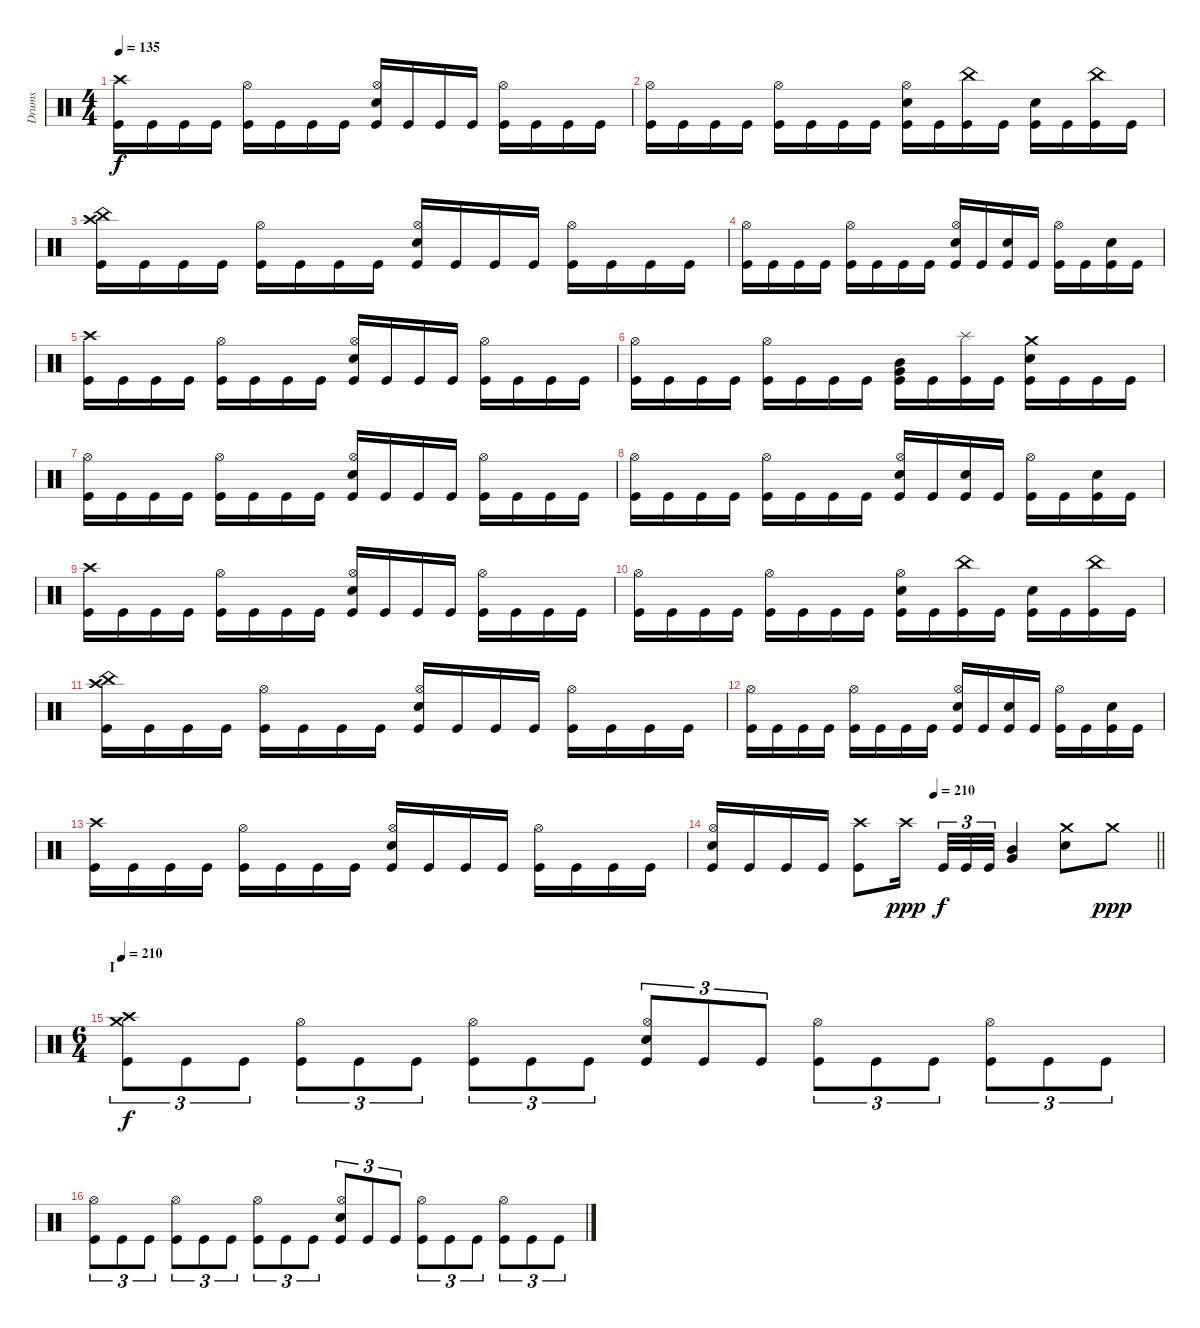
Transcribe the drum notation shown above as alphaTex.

\track ("Drums" "Drums") {instrument percussion}
\staff {score}
\articulation defaults
\ts (4 4)
\tempo 135
\clef neutral
\ks c
("Kick (hit)" "Crash high (hit)").16{dy f} "Kick (hit)".16 "Kick (hit)".16 "Kick (hit)".16 ("Kick (hit)" "Hi-Hat (open)").16 "Kick (hit)".16 "Kick (hit)".16 "Kick (hit)".16 ("Kick (hit)" "Electric Snare (hit)" "Hi-Hat (open)").16 "Kick (hit)".16 "Kick (hit)".16 "Kick (hit)".16 ("Kick (hit)" "Hi-Hat (open)").16 "Kick (hit)".16 "Kick (hit)".16 "Kick (hit)".16 |
("Kick (hit)" "Hi-Hat (open)").16 "Kick (hit)".16 "Kick (hit)".16 "Kick (hit)".16 ("Kick (hit)" "Hi-Hat (open)").16 "Kick (hit)".16 "Kick (hit)".16 "Kick (hit)".16 ("Kick (hit)" "Electric Snare (hit)" "Hi-Hat (open)").16 "Kick (hit)".16 ("Kick (hit)" "China (hit)").16 "Kick (hit)".16 ("Kick (hit)" "Electric Snare (hit)").16 "Kick (hit)".16 ("Kick (hit)" "China (hit)").16 "Kick (hit)".16 |
("Kick (hit)" "China (hit)" "Crash high (hit)").16 "Kick (hit)".16 "Kick (hit)".16 "Kick (hit)".16 ("Kick (hit)" "Hi-Hat (open)").16 "Kick (hit)".16 "Kick (hit)".16 "Kick (hit)".16 ("Kick (hit)" "Electric Snare (hit)" "Hi-Hat (open)").16 "Kick (hit)".16 "Kick (hit)".16 "Kick (hit)".16 ("Kick (hit)" "Hi-Hat (open)").16 "Kick (hit)".16 "Kick (hit)".16 "Kick (hit)".16 |
("Kick (hit)" "Hi-Hat (open)").16 "Kick (hit)".16 "Kick (hit)".16 "Kick (hit)".16 ("Kick (hit)" "Hi-Hat (open)").16 "Kick (hit)".16 "Kick (hit)".16 "Kick (hit)".16 ("Kick (hit)" "Electric Snare (hit)" "Hi-Hat (open)").16 "Kick (hit)".16 ("Kick (hit)" "Electric Snare (hit)").16 "Kick (hit)".16 ("Kick (hit)" "Hi-Hat (open)").16 "Kick (hit)".16 ("Kick (hit)" "Electric Snare (hit)").16 "Kick (hit)".16 |
("Kick (hit)" "Crash high (hit)").16 "Kick (hit)".16 "Kick (hit)".16 "Kick (hit)".16 ("Kick (hit)" "Hi-Hat (open)").16 "Kick (hit)".16 "Kick (hit)".16 "Kick (hit)".16 ("Kick (hit)" "Electric Snare (hit)" "Hi-Hat (open)").16 "Kick (hit)".16 "Kick (hit)".16 "Kick (hit)".16 ("Kick (hit)" "Hi-Hat (open)").16 "Kick (hit)".16 "Kick (hit)".16 "Kick (hit)".16 |
("Kick (hit)" "Hi-Hat (open)").16 "Kick (hit)".16 "Kick (hit)".16 "Kick (hit)".16 ("Kick (hit)" "Hi-Hat (open)").16 "Kick (hit)".16 "Kick (hit)".16 "Kick (hit)".16 ("Kick (hit)" "Very Low Tom (hit)" "Mid Tom (hit)").16 "Kick (hit)".16 ("Kick (hit)" "Splash (hit)").16 "Kick (hit)".16 ("Kick (hit)" "Electric Snare (hit)" "Crash medium (hit)").16 "Kick (hit)".16 "Kick (hit)".16 "Kick (hit)".16 |
("Kick (hit)" "Hi-Hat (open)").16 "Kick (hit)".16 "Kick (hit)".16 "Kick (hit)".16 ("Kick (hit)" "Hi-Hat (open)").16 "Kick (hit)".16 "Kick (hit)".16 "Kick (hit)".16 ("Kick (hit)" "Electric Snare (hit)" "Hi-Hat (open)").16 "Kick (hit)".16 "Kick (hit)".16 "Kick (hit)".16 ("Kick (hit)" "Hi-Hat (open)").16 "Kick (hit)".16 "Kick (hit)".16 "Kick (hit)".16 |
("Kick (hit)" "Hi-Hat (open)").16 "Kick (hit)".16 "Kick (hit)".16 "Kick (hit)".16 ("Kick (hit)" "Hi-Hat (open)").16 "Kick (hit)".16 "Kick (hit)".16 "Kick (hit)".16 ("Kick (hit)" "Electric Snare (hit)" "Hi-Hat (open)").16 "Kick (hit)".16 ("Kick (hit)" "Electric Snare (hit)").16 "Kick (hit)".16 ("Kick (hit)" "Hi-Hat (open)").16 "Kick (hit)".16 ("Kick (hit)" "Electric Snare (hit)").16 "Kick (hit)".16 |
("Kick (hit)" "Crash high (hit)").16 "Kick (hit)".16 "Kick (hit)".16 "Kick (hit)".16 ("Kick (hit)" "Hi-Hat (open)").16 "Kick (hit)".16 "Kick (hit)".16 "Kick (hit)".16 ("Kick (hit)" "Electric Snare (hit)" "Hi-Hat (open)").16 "Kick (hit)".16 "Kick (hit)".16 "Kick (hit)".16 ("Kick (hit)" "Hi-Hat (open)").16 "Kick (hit)".16 "Kick (hit)".16 "Kick (hit)".16 |
("Kick (hit)" "Hi-Hat (open)").16 "Kick (hit)".16 "Kick (hit)".16 "Kick (hit)".16 ("Kick (hit)" "Hi-Hat (open)").16 "Kick (hit)".16 "Kick (hit)".16 "Kick (hit)".16 ("Kick (hit)" "Electric Snare (hit)" "Hi-Hat (open)").16 "Kick (hit)".16 ("Kick (hit)" "China (hit)").16 "Kick (hit)".16 ("Kick (hit)" "Electric Snare (hit)").16 "Kick (hit)".16 ("Kick (hit)" "China (hit)").16 "Kick (hit)".16 |
("Kick (hit)" "China (hit)" "Crash high (hit)").16 "Kick (hit)".16 "Kick (hit)".16 "Kick (hit)".16 ("Kick (hit)" "Hi-Hat (open)").16 "Kick (hit)".16 "Kick (hit)".16 "Kick (hit)".16 ("Kick (hit)" "Electric Snare (hit)" "Hi-Hat (open)").16 "Kick (hit)".16 "Kick (hit)".16 "Kick (hit)".16 ("Kick (hit)" "Hi-Hat (open)").16 "Kick (hit)".16 "Kick (hit)".16 "Kick (hit)".16 |
("Kick (hit)" "Hi-Hat (open)").16 "Kick (hit)".16 "Kick (hit)".16 "Kick (hit)".16 ("Kick (hit)" "Hi-Hat (open)").16 "Kick (hit)".16 "Kick (hit)".16 "Kick (hit)".16 ("Kick (hit)" "Electric Snare (hit)" "Hi-Hat (open)").16 "Kick (hit)".16 ("Kick (hit)" "Electric Snare (hit)").16 "Kick (hit)".16 ("Kick (hit)" "Hi-Hat (open)").16 "Kick (hit)".16 ("Kick (hit)" "Electric Snare (hit)").16 "Kick (hit)".16 |
("Kick (hit)" "Crash high (hit)").16 "Kick (hit)".16 "Kick (hit)".16 "Kick (hit)".16 ("Kick (hit)" "Hi-Hat (open)").16 "Kick (hit)".16 "Kick (hit)".16 "Kick (hit)".16 ("Kick (hit)" "Electric Snare (hit)" "Hi-Hat (open)").16 "Kick (hit)".16 "Kick (hit)".16 "Kick (hit)".16 ("Kick (hit)" "Hi-Hat (open)").16 "Kick (hit)".16 "Kick (hit)".16 "Kick (hit)".16 |
\tempo (210 0.5)
\barLineRight lightlight
("Kick (hit)" "Electric Snare (hit)" "Hi-Hat (open)").16 "Kick (hit)".16 "Kick (hit)".16 "Kick (hit)".16 ("Kick (hit)" "Crash high (hit)").8 "Crash high (hit)".16{dy ppp beam splitsecondary} "Kick (hit)".32{tu (3 2) dy f} "Kick (hit)".32{tu (3 2)} "Kick (hit)".32{tu (3 2)} ("Very Low Tom (hit)" "Mid Tom (hit)").4 ("Electric Snare (hit)" "Crash medium (hit)").8 "Crash medium (hit)".8{dy ppp} |
\ts (6 4)
\section ("" "I")
\tempo 210
("Kick (hit)" "Crash high (hit)" "Crash medium (hit)").8{tu (3 2) dy f} "Kick (hit)".8{tu (3 2)} "Kick (hit)".8{tu (3 2)} ("Kick (hit)" "Hi-Hat (open)").8{tu (3 2)} "Kick (hit)".8{tu (3 2)} "Kick (hit)".8{tu (3 2)} ("Kick (hit)" "Hi-Hat (open)").8{tu (3 2)} "Kick (hit)".8{tu (3 2)} "Kick (hit)".8{tu (3 2)} ("Kick (hit)" "Electric Snare (hit)" "Hi-Hat (open)").8{tu (3 2)} "Kick (hit)".8{tu (3 2)} "Kick (hit)".8{tu (3 2)} ("Kick (hit)" "Hi-Hat (open)").8{tu (3 2)} "Kick (hit)".8{tu (3 2)} "Kick (hit)".8{tu (3 2)} ("Kick (hit)" "Hi-Hat (open)").8{tu (3 2)} "Kick (hit)".8{tu (3 2)} "Kick (hit)".8{tu (3 2)} |
("Kick (hit)" "Hi-Hat (open)").8{tu (3 2)} "Kick (hit)".8{tu (3 2)} "Kick (hit)".8{tu (3 2)} ("Kick (hit)" "Hi-Hat (open)").8{tu (3 2)} "Kick (hit)".8{tu (3 2)} "Kick (hit)".8{tu (3 2)} ("Kick (hit)" "Hi-Hat (open)").8{tu (3 2)} "Kick (hit)".8{tu (3 2)} "Kick (hit)".8{tu (3 2)} ("Kick (hit)" "Electric Snare (hit)" "Hi-Hat (open)").8{tu (3 2)} "Kick (hit)".8{tu (3 2)} "Kick (hit)".8{tu (3 2)} ("Kick (hit)" "Hi-Hat (open)").8{tu (3 2)} "Kick (hit)".8{tu (3 2)} "Kick (hit)".8{tu (3 2)} ("Kick (hit)" "Hi-Hat (open)").8{tu (3 2)} "Kick (hit)".8{tu (3 2)} "Kick (hit)".8{tu (3 2)}
